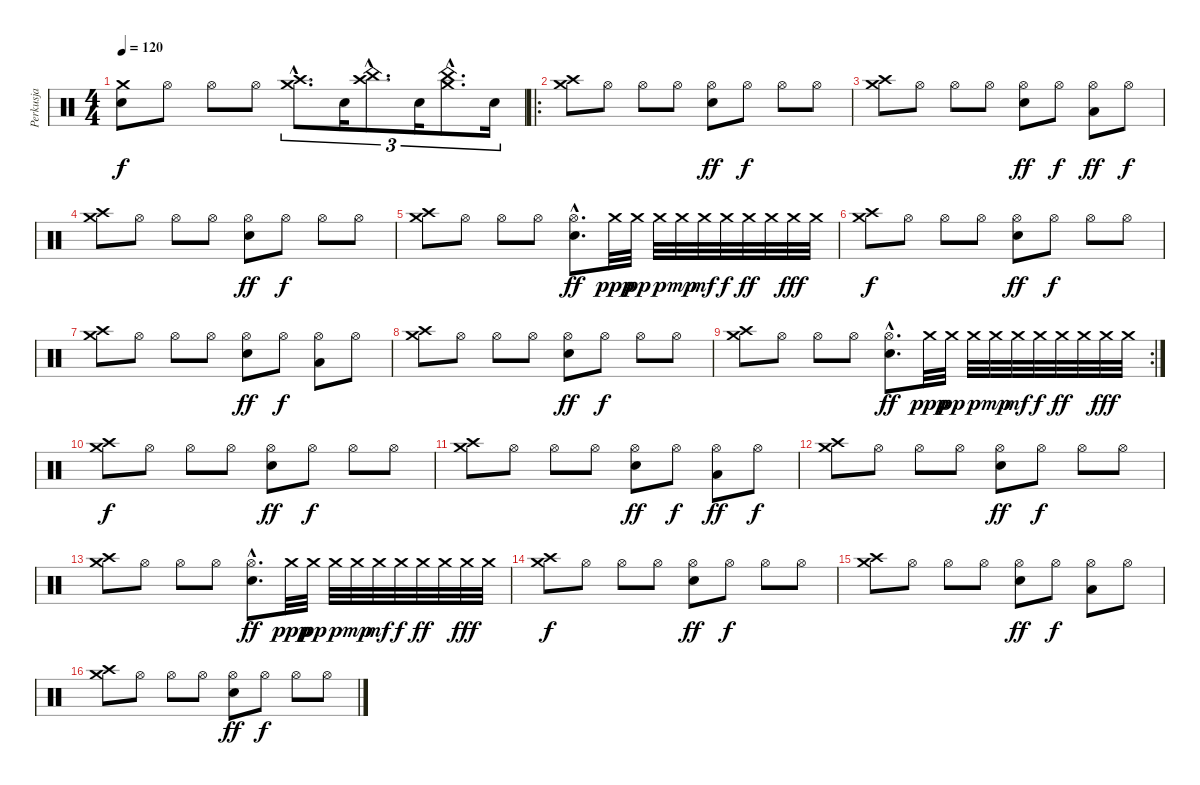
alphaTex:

\track ("Perkusja" "Perkusja") {instrument percussion}
\staff {score}
\articulation defaults
\ts (4 4)
\tempo 120
\clef neutral
\ks c
("Snare (hit) 2" "Crash medium (hit)").8{dy f} "Hi-Hat (open)".8 "Hi-Hat (open)".8 "Hi-Hat (open)".8 ("Crash medium (hit)"{hac} "Crash high (hit)"{hac}).8{d tu (3 2)} "Snare (hit) 2".16{tu (3 2)} ("Crash high (hit)"{hac} "China (hit)"{hac}).8{d tu (3 2)} "Snare (hit) 2".16{tu (3 2)} ("Crash medium (hit)"{hac} "China (hit)"{hac}).8{d tu (3 2)} "Snare (hit) 2".16{tu (3 2)} |
\ro
("Crash high (hit)" "Crash medium (hit)").8 "Hi-Hat (open)".8 "Hi-Hat (open)".8 "Hi-Hat (open)".8 ("Hi-Hat (open)" "Snare (hit) 2").8{dy ff} "Hi-Hat (open)".8{dy f} "Hi-Hat (open)".8 "Hi-Hat (open)".8 |
("Crash high (hit)" "Crash medium (hit)").8 "Hi-Hat (open)".8 "Hi-Hat (open)".8 "Hi-Hat (open)".8 ("Hi-Hat (open)" "Snare (hit) 2").8{dy ff} "Hi-Hat (open)".8{dy f} ("Hi-Hat (open)" "Low Tom (hit)").8{dy ff} "Hi-Hat (open)".8{dy f} |
("Crash high (hit)" "Crash medium (hit)").8 "Hi-Hat (open)".8 "Hi-Hat (open)".8 "Hi-Hat (open)".8 ("Hi-Hat (open)" "Snare (hit) 2").8{dy ff} "Hi-Hat (open)".8{dy f} "Hi-Hat (open)".8 "Hi-Hat (open)".8 |
("Crash high (hit)" "Crash medium (hit)").8 "Hi-Hat (open)".8 "Hi-Hat (open)".8 "Hi-Hat (open)".8 ("Hi-Hat (open)"{hac} "Snare (hit) 2"{hac}).8{d dy ff} "Crash medium (hit)".32{dy ppp} "Crash medium (hit)".32{dy pp} "Crash medium (hit)".32{dy p} "Crash medium (hit)".32{dy mp} "Crash medium (hit)".32{dy mf} "Crash medium (hit)".32{dy f} "Crash medium (hit)".32{dy ff} "Crash medium (hit)".32 "Crash medium (hit)".32{dy fff} "Crash medium (hit)".32 |
("Crash high (hit)" "Crash medium (hit)").8{dy f} "Hi-Hat (open)".8 "Hi-Hat (open)".8 "Hi-Hat (open)".8 ("Hi-Hat (open)" "Snare (hit) 2").8{dy ff} "Hi-Hat (open)".8{dy f} "Hi-Hat (open)".8 "Hi-Hat (open)".8 |
("Crash high (hit)" "Crash medium (hit)").8 "Hi-Hat (open)".8 "Hi-Hat (open)".8 "Hi-Hat (open)".8 ("Hi-Hat (open)" "Snare (hit) 2").8{dy ff} "Hi-Hat (open)".8{dy f} ("Hi-Hat (open)" "Low Tom (hit)").8 "Hi-Hat (open)".8 |
("Crash high (hit)" "Crash medium (hit)").8 "Hi-Hat (open)".8 "Hi-Hat (open)".8 "Hi-Hat (open)".8 ("Hi-Hat (open)" "Snare (hit) 2").8{dy ff} "Hi-Hat (open)".8{dy f} "Hi-Hat (open)".8 "Hi-Hat (open)".8 |
\rc 2
("Crash high (hit)" "Crash medium (hit)").8 "Hi-Hat (open)".8 "Hi-Hat (open)".8 "Hi-Hat (open)".8 ("Hi-Hat (open)"{hac} "Snare (hit) 2"{hac}).8{d dy ff} "Crash medium (hit)".32{dy ppp} "Crash medium (hit)".32{dy pp} "Crash medium (hit)".32{dy p} "Crash medium (hit)".32{dy mp} "Crash medium (hit)".32{dy mf} "Crash medium (hit)".32{dy f} "Crash medium (hit)".32{dy ff} "Crash medium (hit)".32 "Crash medium (hit)".32{dy fff} "Crash medium (hit)".32 |
("Crash high (hit)" "Crash medium (hit)").8{dy f} "Hi-Hat (open)".8 "Hi-Hat (open)".8 "Hi-Hat (open)".8 ("Hi-Hat (open)" "Snare (hit) 2").8{dy ff} "Hi-Hat (open)".8{dy f} "Hi-Hat (open)".8 "Hi-Hat (open)".8 |
("Crash high (hit)" "Crash medium (hit)").8 "Hi-Hat (open)".8 "Hi-Hat (open)".8 "Hi-Hat (open)".8 ("Hi-Hat (open)" "Snare (hit) 2").8{dy ff} "Hi-Hat (open)".8{dy f} ("Hi-Hat (open)" "Low Tom (hit)").8{dy ff} "Hi-Hat (open)".8{dy f} |
("Crash high (hit)" "Crash medium (hit)").8 "Hi-Hat (open)".8 "Hi-Hat (open)".8 "Hi-Hat (open)".8 ("Hi-Hat (open)" "Snare (hit) 2").8{dy ff} "Hi-Hat (open)".8{dy f} "Hi-Hat (open)".8 "Hi-Hat (open)".8 |
("Crash high (hit)" "Crash medium (hit)").8 "Hi-Hat (open)".8 "Hi-Hat (open)".8 "Hi-Hat (open)".8 ("Hi-Hat (open)"{hac} "Snare (hit) 2"{hac}).8{d dy ff} "Crash medium (hit)".32{dy ppp} "Crash medium (hit)".32{dy pp} "Crash medium (hit)".32{dy p} "Crash medium (hit)".32{dy mp} "Crash medium (hit)".32{dy mf} "Crash medium (hit)".32{dy f} "Crash medium (hit)".32{dy ff} "Crash medium (hit)".32 "Crash medium (hit)".32{dy fff} "Crash medium (hit)".32 |
("Crash high (hit)" "Crash medium (hit)").8{dy f} "Hi-Hat (open)".8 "Hi-Hat (open)".8 "Hi-Hat (open)".8 ("Hi-Hat (open)" "Snare (hit) 2").8{dy ff} "Hi-Hat (open)".8{dy f} "Hi-Hat (open)".8 "Hi-Hat (open)".8 |
("Crash high (hit)" "Crash medium (hit)").8 "Hi-Hat (open)".8 "Hi-Hat (open)".8 "Hi-Hat (open)".8 ("Hi-Hat (open)" "Snare (hit) 2").8{dy ff} "Hi-Hat (open)".8{dy f} ("Hi-Hat (open)" "Low Tom (hit)").8 "Hi-Hat (open)".8 |
("Crash high (hit)" "Crash medium (hit)").8 "Hi-Hat (open)".8 "Hi-Hat (open)".8 "Hi-Hat (open)".8 ("Hi-Hat (open)" "Snare (hit) 2").8{dy ff} "Hi-Hat (open)".8{dy f} "Hi-Hat (open)".8 "Hi-Hat (open)".8
